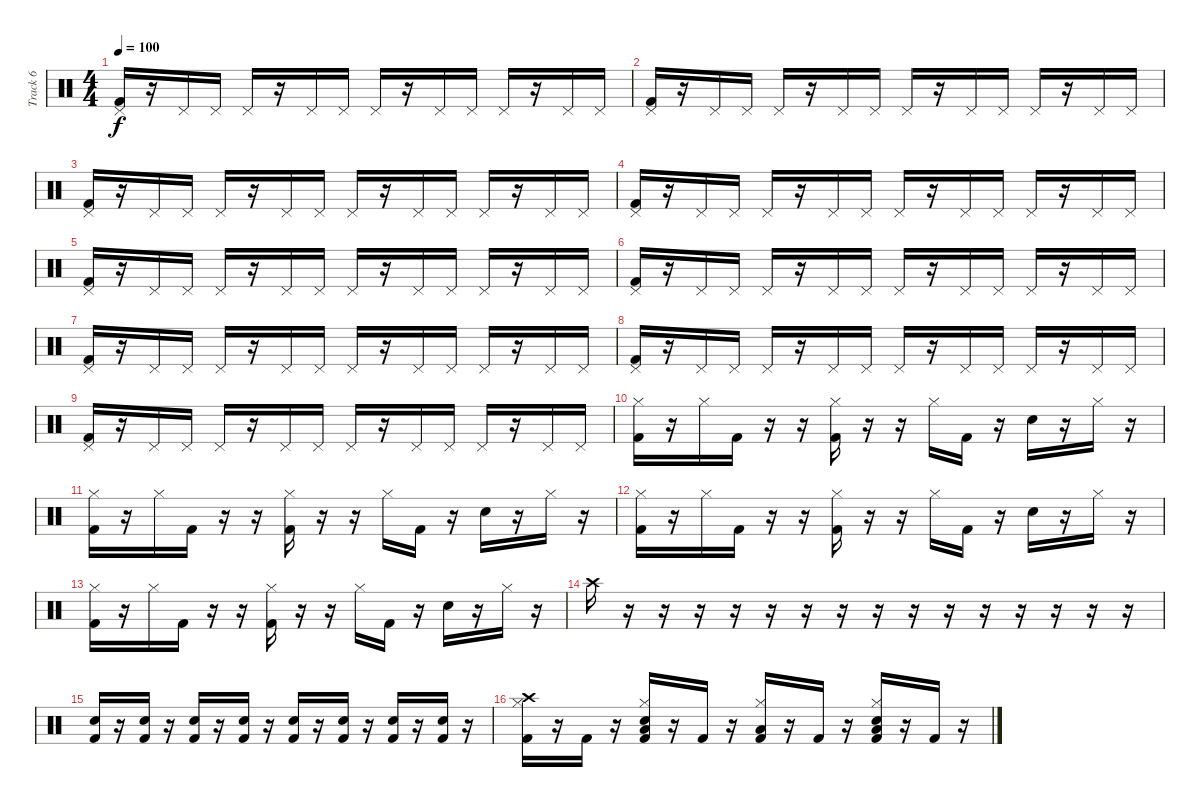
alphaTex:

\track ("Track 6" "Track 6") {instrument percussion}
\staff {score}
\articulation defaults
\ts (4 4)
\tempo 100
\clef neutral
\ks c
("Pedal Hi-Hat (hit)" "Kick (hit) 2").16{dy f} r.16 "Pedal Hi-Hat (hit)".16 "Pedal Hi-Hat (hit)".16 "Pedal Hi-Hat (hit)".16 r.16 "Pedal Hi-Hat (hit)".16 "Pedal Hi-Hat (hit)".16 "Pedal Hi-Hat (hit)".16 r.16 "Pedal Hi-Hat (hit)".16 "Pedal Hi-Hat (hit)".16 "Pedal Hi-Hat (hit)".16 r.16 "Pedal Hi-Hat (hit)".16 "Pedal Hi-Hat (hit)".16 |
("Pedal Hi-Hat (hit)" "Kick (hit) 2").16 r.16 "Pedal Hi-Hat (hit)".16 "Pedal Hi-Hat (hit)".16 "Pedal Hi-Hat (hit)".16 r.16 "Pedal Hi-Hat (hit)".16 "Pedal Hi-Hat (hit)".16 "Pedal Hi-Hat (hit)".16 r.16 "Pedal Hi-Hat (hit)".16 "Pedal Hi-Hat (hit)".16 "Pedal Hi-Hat (hit)".16 r.16 "Pedal Hi-Hat (hit)".16 "Pedal Hi-Hat (hit)".16 |
("Pedal Hi-Hat (hit)" "Kick (hit) 2").16 r.16 "Pedal Hi-Hat (hit)".16 "Pedal Hi-Hat (hit)".16 "Pedal Hi-Hat (hit)".16 r.16 "Pedal Hi-Hat (hit)".16 "Pedal Hi-Hat (hit)".16 "Pedal Hi-Hat (hit)".16 r.16 "Pedal Hi-Hat (hit)".16 "Pedal Hi-Hat (hit)".16 "Pedal Hi-Hat (hit)".16 r.16 "Pedal Hi-Hat (hit)".16 "Pedal Hi-Hat (hit)".16 |
("Pedal Hi-Hat (hit)" "Kick (hit) 2").16 r.16 "Pedal Hi-Hat (hit)".16 "Pedal Hi-Hat (hit)".16 "Pedal Hi-Hat (hit)".16 r.16 "Pedal Hi-Hat (hit)".16 "Pedal Hi-Hat (hit)".16 "Pedal Hi-Hat (hit)".16 r.16 "Pedal Hi-Hat (hit)".16 "Pedal Hi-Hat (hit)".16 "Pedal Hi-Hat (hit)".16 r.16 "Pedal Hi-Hat (hit)".16 "Pedal Hi-Hat (hit)".16 |
("Pedal Hi-Hat (hit)" "Kick (hit) 2").16 r.16 "Pedal Hi-Hat (hit)".16 "Pedal Hi-Hat (hit)".16 "Pedal Hi-Hat (hit)".16 r.16 "Pedal Hi-Hat (hit)".16 "Pedal Hi-Hat (hit)".16 "Pedal Hi-Hat (hit)".16 r.16 "Pedal Hi-Hat (hit)".16 "Pedal Hi-Hat (hit)".16 "Pedal Hi-Hat (hit)".16 r.16 "Pedal Hi-Hat (hit)".16 "Pedal Hi-Hat (hit)".16 |
("Pedal Hi-Hat (hit)" "Kick (hit) 2").16 r.16 "Pedal Hi-Hat (hit)".16 "Pedal Hi-Hat (hit)".16 "Pedal Hi-Hat (hit)".16 r.16 "Pedal Hi-Hat (hit)".16 "Pedal Hi-Hat (hit)".16 "Pedal Hi-Hat (hit)".16 r.16 "Pedal Hi-Hat (hit)".16 "Pedal Hi-Hat (hit)".16 "Pedal Hi-Hat (hit)".16 r.16 "Pedal Hi-Hat (hit)".16 "Pedal Hi-Hat (hit)".16 |
("Pedal Hi-Hat (hit)" "Kick (hit) 2").16 r.16 "Pedal Hi-Hat (hit)".16 "Pedal Hi-Hat (hit)".16 "Pedal Hi-Hat (hit)".16 r.16 "Pedal Hi-Hat (hit)".16 "Pedal Hi-Hat (hit)".16 "Pedal Hi-Hat (hit)".16 r.16 "Pedal Hi-Hat (hit)".16 "Pedal Hi-Hat (hit)".16 "Pedal Hi-Hat (hit)".16 r.16 "Pedal Hi-Hat (hit)".16 "Pedal Hi-Hat (hit)".16 |
("Pedal Hi-Hat (hit)" "Kick (hit) 2").16 r.16 "Pedal Hi-Hat (hit)".16 "Pedal Hi-Hat (hit)".16 "Pedal Hi-Hat (hit)".16 r.16 "Pedal Hi-Hat (hit)".16 "Pedal Hi-Hat (hit)".16 "Pedal Hi-Hat (hit)".16 r.16 "Pedal Hi-Hat (hit)".16 "Pedal Hi-Hat (hit)".16 "Pedal Hi-Hat (hit)".16 r.16 "Pedal Hi-Hat (hit)".16 "Pedal Hi-Hat (hit)".16 |
("Pedal Hi-Hat (hit)" "Kick (hit) 2").16 r.16 "Pedal Hi-Hat (hit)".16 "Pedal Hi-Hat (hit)".16 "Pedal Hi-Hat (hit)".16 r.16 "Pedal Hi-Hat (hit)".16 "Pedal Hi-Hat (hit)".16 "Pedal Hi-Hat (hit)".16 r.16 "Pedal Hi-Hat (hit)".16 "Pedal Hi-Hat (hit)".16 "Pedal Hi-Hat (hit)".16 r.16 "Pedal Hi-Hat (hit)".16 "Pedal Hi-Hat (hit)".16 |
("Kick (hit) 2" "Hi-Hat (closed)").16 r.16 "Hi-Hat (closed)".16 "Kick (hit) 2".16 r.16 r.16 ("Kick (hit) 2" "Hi-Hat (closed)").16 r.16 r.16 "Hi-Hat (closed)".16 "Kick (hit) 2".16 r.16 "Snare (hit) 2".16 r.16 "Hi-Hat (closed)".16 r.16 |
("Kick (hit) 2" "Hi-Hat (closed)").16 r.16 "Hi-Hat (closed)".16 "Kick (hit) 2".16 r.16 r.16 ("Kick (hit) 2" "Hi-Hat (closed)").16 r.16 r.16 "Hi-Hat (closed)".16 "Kick (hit) 2".16 r.16 "Snare (hit) 2".16 r.16 "Hi-Hat (closed)".16 r.16 |
("Kick (hit) 2" "Hi-Hat (closed)").16 r.16 "Hi-Hat (closed)".16 "Kick (hit) 2".16 r.16 r.16 ("Kick (hit) 2" "Hi-Hat (closed)").16 r.16 r.16 "Hi-Hat (closed)".16 "Kick (hit) 2".16 r.16 "Snare (hit) 2".16 r.16 "Hi-Hat (closed)".16 r.16 |
("Kick (hit) 2" "Hi-Hat (closed)").16 r.16 "Hi-Hat (closed)".16 "Kick (hit) 2".16 r.16 r.16 ("Kick (hit) 2" "Hi-Hat (closed)").16 r.16 r.16 "Hi-Hat (closed)".16 "Kick (hit) 2".16 r.16 "Snare (hit) 2".16 r.16 "Hi-Hat (closed)".16 r.16 |
"Crash high (hit)".16 r.16 r.16 r.16 r.16 r.16 r.16 r.16 r.16 r.16 r.16 r.16 r.16 r.16 r.16 r.16 |
("Kick (hit) 2" "Snare (hit) 2").16 r.16 ("Kick (hit) 2" "Snare (hit) 2").16 r.16 ("Kick (hit) 2" "Snare (hit) 2").16 r.16 ("Kick (hit) 2" "Snare (hit) 2").16 r.16 ("Kick (hit) 2" "Snare (hit) 2").16 r.16 ("Kick (hit) 2" "Snare (hit) 2").16 r.16 ("Kick (hit) 2" "Snare (hit) 2").16 r.16 ("Kick (hit) 2" "Snare (hit) 2").16 r.16 |
("Hi-Hat (closed)" "Kick (hit) 2" "Crash high (hit)").16 r.16 "Kick (hit) 2".16 r.16 ("Hi-Hat (closed)" "Kick (hit) 2" "Low Floor Tom (hit)" "Snare (hit) 2").16 r.16 "Kick (hit) 2".16 r.16 ("Hi-Hat (closed)" "Kick (hit) 2" "Low Floor Tom (hit)").16 r.16 "Kick (hit) 2".16 r.16 ("Hi-Hat (closed)" "Kick (hit) 2" "Low Floor Tom (hit)" "Snare (hit) 2").16 r.16 "Kick (hit) 2".16 r.16
